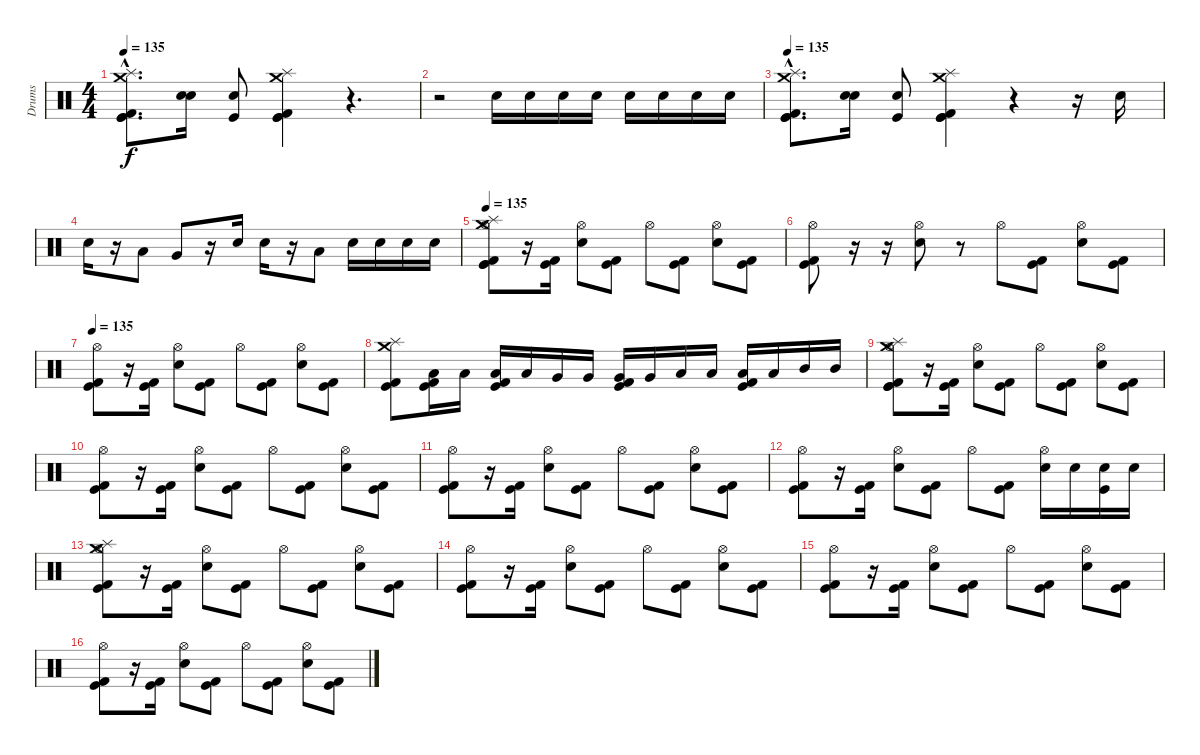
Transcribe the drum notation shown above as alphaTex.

\track ("Drums" "Drums") {instrument percussion}
\staff {score}
\articulation defaults
\ts (4 4)
\tempo 135
\clef neutral
\ks c
("Crash medium (hit)"{hac} "Splash (hit)"{hac} "Kick (hit)"{hac} "Kick (hit) 2"{hac} "Kick (hit)"{hac}).8{d dy f} ("Snare (hit) 2" "Electric Snare (hit)").16 ("Kick (hit)" "Electric Snare (hit)").8 ("Crash medium (hit)" "Splash (hit)" "Kick (hit)" "Kick (hit) 2" "Kick (hit)").4 r.4{d} |
r.2 "Snare (hit) 2".16 "Snare (hit) 2".16 "Snare (hit) 2".16 "Snare (hit) 2".16 "Snare (hit) 2".16 "Snare (hit) 2".16 "Snare (hit) 2".16 "Snare (hit) 2".16 |
\tempo 135
("Crash medium (hit)"{hac} "Splash (hit)"{hac} "Kick (hit)"{hac} "Kick (hit) 2"{hac} "Kick (hit)"{hac}).8{d} ("Snare (hit) 2" "Electric Snare (hit)").16 ("Kick (hit)" "Electric Snare (hit)").8 ("Crash medium (hit)" "Splash (hit)" "Kick (hit)" "Kick (hit) 2" "Kick (hit)").4 r.4 r.16 "Snare (hit) 2".16 |
"Snare (hit) 2".16 r.16 "Low Tom (hit)".8 "Very Low Tom (hit)".8 r.16 "Snare (hit) 2".16 "Snare (hit) 2".16 r.16 "Low Tom (hit)".8 "Snare (hit) 2".16 "Snare (hit) 2".16 "Snare (hit) 2".16 "Snare (hit) 2".16 |
\tempo 135
("Hi-Hat (open)" "Kick (hit)" "Kick (hit) 2" "Splash (hit)" "Crash medium (hit)" "Kick (hit)").8 r.16 ("Kick (hit)" "Kick (hit) 2").16 ("Hi-Hat (open)" "Snare (hit) 2").8 ("Kick (hit)" "Kick (hit) 2").8 "Hi-Hat (open)".8 ("Kick (hit)" "Kick (hit) 2").8 ("Hi-Hat (open)" "Snare (hit) 2").8 ("Kick (hit) 2" "Kick (hit)").8 |
("Hi-Hat (open)" "Kick (hit)" "Kick (hit) 2").8 r.16 r.16 ("Hi-Hat (open)" "Snare (hit) 2").8 r.8 "Hi-Hat (open)".8 ("Kick (hit)" "Kick (hit) 2").8 ("Hi-Hat (open)" "Snare (hit) 2").8 ("Kick (hit) 2" "Kick (hit)").8 |
\tempo 135
("Hi-Hat (open)" "Kick (hit)" "Kick (hit) 2").8 r.16 ("Kick (hit)" "Kick (hit) 2").16 ("Hi-Hat (open)" "Snare (hit) 2").8 ("Kick (hit)" "Kick (hit) 2").8 "Hi-Hat (open)".8 ("Kick (hit)" "Kick (hit) 2").8 ("Hi-Hat (open)" "Snare (hit) 2").8 ("Kick (hit) 2" "Kick (hit)").8 |
("Splash (hit)" "Crash medium (hit)" "Kick (hit)" "Kick (hit) 2").8 ("Kick (hit) 2" "Kick (hit)" "Low Floor Tom (hit)").16 "Low Floor Tom (hit)".16 ("Kick (hit) 2" "Kick (hit)" "Low Floor Tom (hit)").16 "Low Floor Tom (hit)".16 "Very Low Tom (hit)".16 "Very Low Tom (hit)".16 ("Kick (hit)" "Kick (hit) 2" "Very Low Tom (hit)").16 "Very Low Tom (hit)".16 "Low Tom (hit)".16 "Low Tom (hit)".16 ("Kick (hit) 2" "Kick (hit)" "Low Tom (hit)").16 "Low Tom (hit)".16 "Mid Tom (hit)".16 "Mid Tom (hit)".16 |
("Hi-Hat (open)" "Kick (hit)" "Kick (hit) 2" "Splash (hit)" "Crash medium (hit)" "Kick (hit)").8 r.16 ("Kick (hit)" "Kick (hit) 2").16 ("Hi-Hat (open)" "Snare (hit) 2").8 ("Kick (hit)" "Kick (hit) 2").8 "Hi-Hat (open)".8 ("Kick (hit)" "Kick (hit) 2").8 ("Hi-Hat (open)" "Snare (hit) 2").8 ("Kick (hit) 2" "Kick (hit)").8 |
("Hi-Hat (open)" "Kick (hit)" "Kick (hit) 2").8 r.16 ("Kick (hit)" "Kick (hit) 2").16 ("Hi-Hat (open)" "Snare (hit) 2").8 ("Kick (hit)" "Kick (hit) 2").8 "Hi-Hat (open)".8 ("Kick (hit)" "Kick (hit) 2").8 ("Hi-Hat (open)" "Snare (hit) 2").8 ("Kick (hit) 2" "Kick (hit)").8 |
("Hi-Hat (open)" "Kick (hit)" "Kick (hit) 2").8 r.16 ("Kick (hit)" "Kick (hit) 2").16 ("Hi-Hat (open)" "Snare (hit) 2").8 ("Kick (hit)" "Kick (hit) 2").8 "Hi-Hat (open)".8 ("Kick (hit)" "Kick (hit) 2").8 ("Hi-Hat (open)" "Snare (hit) 2").8 ("Kick (hit) 2" "Kick (hit)").8 |
("Hi-Hat (open)" "Kick (hit)" "Kick (hit) 2").8 r.16 ("Kick (hit)" "Kick (hit) 2").16 ("Hi-Hat (open)" "Snare (hit) 2").8 ("Kick (hit)" "Kick (hit) 2").8 "Hi-Hat (open)".8 ("Kick (hit)" "Kick (hit) 2").8 ("Hi-Hat (open)" "Snare (hit) 2").16 "Snare (hit) 2".16 ("Kick (hit)" "Snare (hit) 2").16 "Snare (hit) 2".16 |
("Hi-Hat (open)" "Kick (hit)" "Kick (hit) 2" "Splash (hit)" "Crash medium (hit)").8 r.16 ("Kick (hit)" "Kick (hit) 2").16 ("Hi-Hat (open)" "Snare (hit) 2").8 ("Kick (hit)" "Kick (hit) 2").8 "Hi-Hat (open)".8 ("Kick (hit)" "Kick (hit) 2").8 ("Hi-Hat (open)" "Snare (hit) 2").8 ("Kick (hit) 2" "Kick (hit)").8 |
("Hi-Hat (open)" "Kick (hit)" "Kick (hit) 2").8 r.16 ("Kick (hit)" "Kick (hit) 2").16 ("Hi-Hat (open)" "Snare (hit) 2").8 ("Kick (hit)" "Kick (hit) 2").8 "Hi-Hat (open)".8 ("Kick (hit)" "Kick (hit) 2").8 ("Hi-Hat (open)" "Snare (hit) 2").8 ("Kick (hit) 2" "Kick (hit)").8 |
("Hi-Hat (open)" "Kick (hit)" "Kick (hit) 2").8 r.16 ("Kick (hit)" "Kick (hit) 2").16 ("Hi-Hat (open)" "Snare (hit) 2").8 ("Kick (hit)" "Kick (hit) 2").8 "Hi-Hat (open)".8 ("Kick (hit)" "Kick (hit) 2").8 ("Hi-Hat (open)" "Snare (hit) 2").8 ("Kick (hit) 2" "Kick (hit)").8 |
("Hi-Hat (open)" "Kick (hit)" "Kick (hit) 2").8 r.16 ("Kick (hit)" "Kick (hit) 2").16 ("Hi-Hat (open)" "Snare (hit) 2").8 ("Kick (hit)" "Kick (hit) 2").8 "Hi-Hat (open)".8 ("Kick (hit)" "Kick (hit) 2").8 ("Hi-Hat (open)" "Snare (hit) 2").8 ("Kick (hit) 2" "Kick (hit)").8
